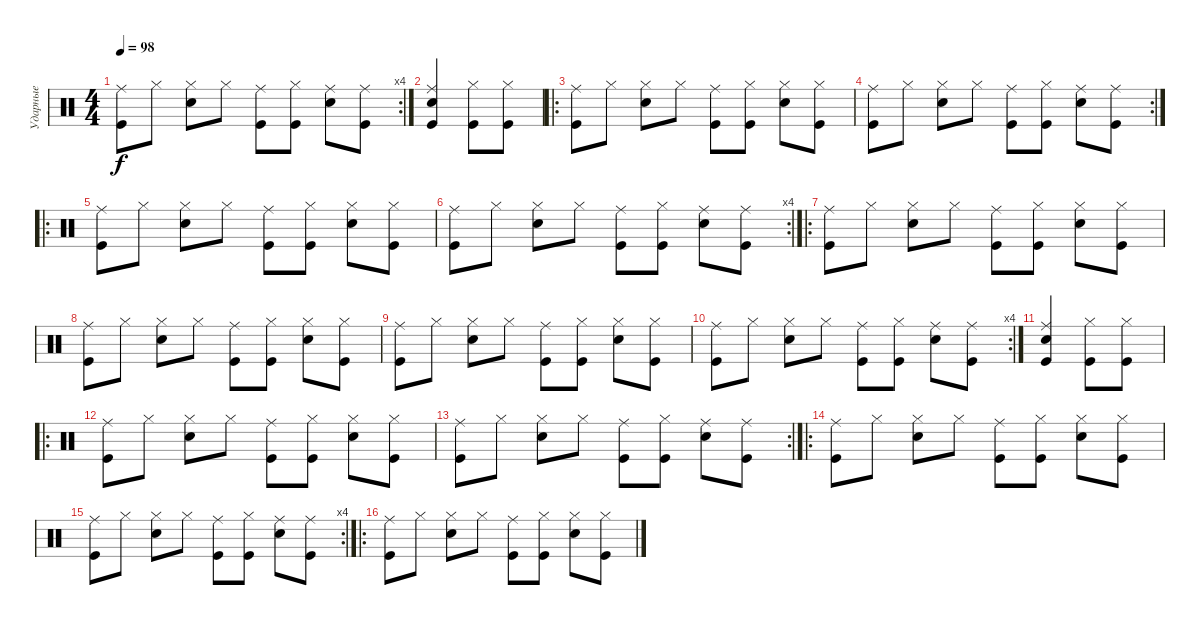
\track ("Ударные" "Ударные") {instrument percussion}
\staff {score}
\articulation defaults
\rc 4
\ts (4 4)
\tempo 98
\clef neutral
\ks c
("Kick (hit)" "Ride (middle)").8{dy f} "Hi-Hat (closed)".8 ("Snare (hit) 2" "Hi-Hat (closed)").8 "Hi-Hat (closed)".8 ("Kick (hit)" "Ride (middle)").8 ("Kick (hit)" "Hi-Hat (closed)").8 ("Snare (hit) 2" "Ride (middle)").8 ("Kick (hit)" "Ride (middle)").8 |
("Kick (hit)" "Snare (hit) 2" "Ride (middle)").4 ("Kick (hit)" "Hi-Hat (closed)").8 ("Kick (hit)" "Hi-Hat (closed)").8 |
\ro
("Kick (hit)" "Ride (middle)").8 "Hi-Hat (closed)".8 ("Snare (hit) 2" "Hi-Hat (closed)").8 "Hi-Hat (closed)".8 ("Kick (hit)" "Ride (middle)").8 ("Kick (hit)" "Hi-Hat (closed)").8 ("Snare (hit) 2" "Hi-Hat (closed)").8 ("Kick (hit)" "Hi-Hat (closed)").8 |
\rc 2
("Kick (hit)" "Ride (middle)").8 "Hi-Hat (closed)".8 ("Snare (hit) 2" "Hi-Hat (closed)").8 "Hi-Hat (closed)".8 ("Kick (hit)" "Ride (middle)").8 ("Kick (hit)" "Hi-Hat (closed)").8 ("Snare (hit) 2" "Ride (middle)").8 ("Kick (hit)" "Ride (middle)").8 |
\ro
("Kick (hit)" "Ride (middle)").8 "Hi-Hat (closed)".8 ("Snare (hit) 2" "Hi-Hat (closed)").8 "Hi-Hat (closed)".8 ("Kick (hit)" "Ride (middle)").8 ("Kick (hit)" "Hi-Hat (closed)").8 ("Snare (hit) 2" "Hi-Hat (closed)").8 ("Kick (hit)" "Hi-Hat (closed)").8 |
\rc 4
("Kick (hit)" "Ride (middle)").8 "Hi-Hat (closed)".8 ("Snare (hit) 2" "Hi-Hat (closed)").8 "Hi-Hat (closed)".8 ("Kick (hit)" "Ride (middle)").8 ("Kick (hit)" "Hi-Hat (closed)").8 ("Snare (hit) 2" "Ride (middle)").8 ("Kick (hit)" "Ride (middle)").8 |
\ro
("Kick (hit)" "Ride (middle)").8 "Hi-Hat (closed)".8 ("Snare (hit) 2" "Hi-Hat (closed)").8 "Hi-Hat (closed)".8 ("Kick (hit)" "Ride (middle)").8 ("Kick (hit)" "Hi-Hat (closed)").8 ("Snare (hit) 2" "Hi-Hat (closed)").8 ("Kick (hit)" "Hi-Hat (closed)").8 |
("Kick (hit)" "Ride (middle)").8 "Hi-Hat (closed)".8 ("Snare (hit) 2" "Hi-Hat (closed)").8 "Hi-Hat (closed)".8 ("Kick (hit)" "Ride (middle)").8 ("Kick (hit)" "Hi-Hat (closed)").8 ("Snare (hit) 2" "Hi-Hat (closed)").8 ("Kick (hit)" "Hi-Hat (closed)").8 |
("Kick (hit)" "Ride (middle)").8 "Hi-Hat (closed)".8 ("Snare (hit) 2" "Hi-Hat (closed)").8 "Hi-Hat (closed)".8 ("Kick (hit)" "Ride (middle)").8 ("Kick (hit)" "Hi-Hat (closed)").8 ("Snare (hit) 2" "Hi-Hat (closed)").8 ("Kick (hit)" "Hi-Hat (closed)").8 |
\rc 4
("Kick (hit)" "Ride (middle)").8 "Hi-Hat (closed)".8 ("Snare (hit) 2" "Hi-Hat (closed)").8 "Hi-Hat (closed)".8 ("Kick (hit)" "Ride (middle)").8 ("Kick (hit)" "Hi-Hat (closed)").8 ("Snare (hit) 2" "Ride (middle)").8 ("Kick (hit)" "Ride (middle)").8 |
("Kick (hit)" "Snare (hit) 2" "Ride (middle)").4 ("Kick (hit)" "Hi-Hat (closed)").8 ("Kick (hit)" "Hi-Hat (closed)").8 |
\ro
("Kick (hit)" "Ride (middle)").8 "Hi-Hat (closed)".8 ("Snare (hit) 2" "Hi-Hat (closed)").8 "Hi-Hat (closed)".8 ("Kick (hit)" "Ride (middle)").8 ("Kick (hit)" "Hi-Hat (closed)").8 ("Snare (hit) 2" "Hi-Hat (closed)").8 ("Kick (hit)" "Hi-Hat (closed)").8 |
\rc 2
("Kick (hit)" "Ride (middle)").8 "Hi-Hat (closed)".8 ("Snare (hit) 2" "Hi-Hat (closed)").8 "Hi-Hat (closed)".8 ("Kick (hit)" "Ride (middle)").8 ("Kick (hit)" "Hi-Hat (closed)").8 ("Snare (hit) 2" "Ride (middle)").8 ("Kick (hit)" "Ride (middle)").8 |
\ro
("Kick (hit)" "Ride (middle)").8 "Hi-Hat (closed)".8 ("Snare (hit) 2" "Hi-Hat (closed)").8 "Hi-Hat (closed)".8 ("Kick (hit)" "Ride (middle)").8 ("Kick (hit)" "Hi-Hat (closed)").8 ("Snare (hit) 2" "Hi-Hat (closed)").8 ("Kick (hit)" "Hi-Hat (closed)").8 |
\rc 4
("Kick (hit)" "Ride (middle)").8 "Hi-Hat (closed)".8 ("Snare (hit) 2" "Hi-Hat (closed)").8 "Hi-Hat (closed)".8 ("Kick (hit)" "Ride (middle)").8 ("Kick (hit)" "Hi-Hat (closed)").8 ("Snare (hit) 2" "Ride (middle)").8 ("Kick (hit)" "Ride (middle)").8 |
\ro
("Kick (hit)" "Ride (middle)").8 "Hi-Hat (closed)".8 ("Snare (hit) 2" "Hi-Hat (closed)").8 "Hi-Hat (closed)".8 ("Kick (hit)" "Ride (middle)").8 ("Kick (hit)" "Hi-Hat (closed)").8 ("Snare (hit) 2" "Hi-Hat (closed)").8 ("Kick (hit)" "Hi-Hat (closed)").8
